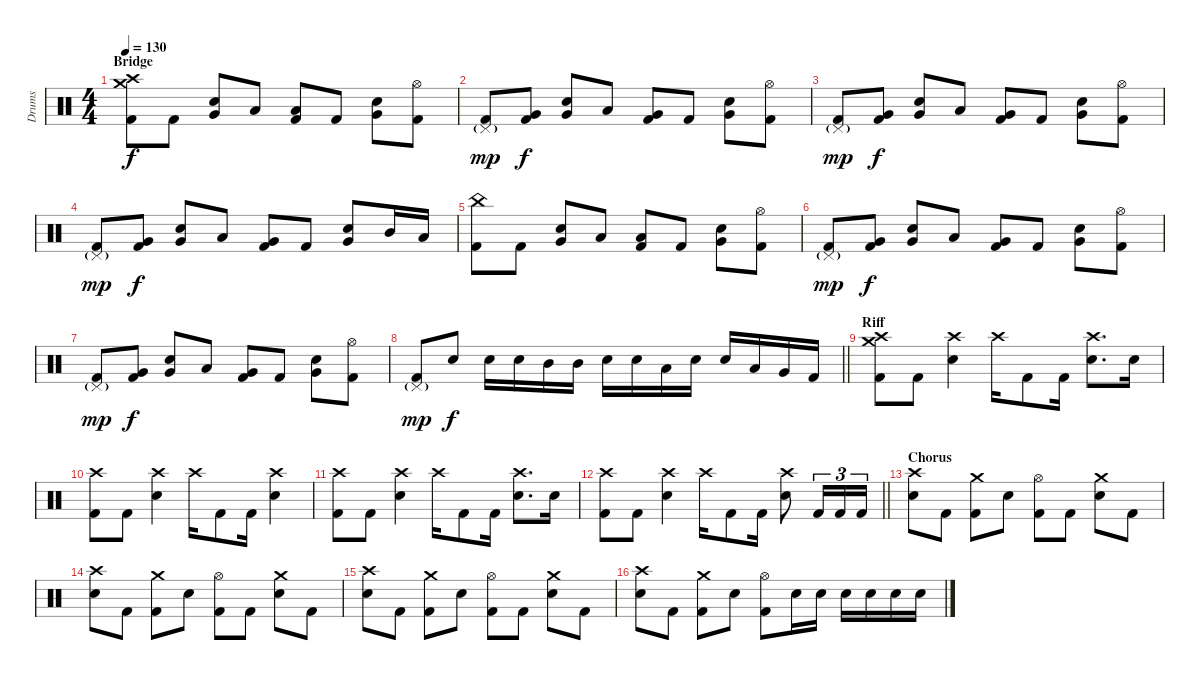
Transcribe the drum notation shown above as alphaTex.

\track ("Drums" "Drums") {instrument percussion}
\staff {score}
\articulation defaults
\ts (4 4)
\section ("" "Bridge")
\tempo 130
\clef neutral
\ks c
("Crash high (hit)" "Crash medium (hit)" "Kick (hit) 2").8{dy f} "Kick (hit) 2".8 ("Very Low Tom (hit)" "Electric Snare (hit)").8 "Low Floor Tom (hit)".8 ("Low Tom (hit)" "Kick (hit) 2").8 "Kick (hit) 2".8 ("Very Low Tom (hit)" "Electric Snare (hit)").8 ("Hi-Hat (open)" "Kick (hit) 2").8 |
("Pedal Hi-Hat (hit)"{g} "Kick (hit) 2").8{dy mp} ("Very Low Tom (hit)" "Kick (hit) 2").8{dy f} ("Very Low Tom (hit)" "Electric Snare (hit)").8 "Low Floor Tom (hit)".8 ("Very Low Tom (hit)" "Kick (hit) 2").8 "Kick (hit) 2".8 ("Very Low Tom (hit)" "Electric Snare (hit)").8 ("Hi-Hat (open)" "Kick (hit) 2").8 |
("Pedal Hi-Hat (hit)"{g} "Kick (hit) 2").8{dy mp} ("Very Low Tom (hit)" "Kick (hit) 2").8{dy f} ("Very Low Tom (hit)" "Electric Snare (hit)").8 "Low Floor Tom (hit)".8 ("Very Low Tom (hit)" "Kick (hit) 2").8 "Kick (hit) 2".8 ("Very Low Tom (hit)" "Electric Snare (hit)").8 ("Hi-Hat (open)" "Kick (hit) 2").8 |
("Pedal Hi-Hat (hit)"{g} "Kick (hit) 2").8{dy mp} ("Very Low Tom (hit)" "Kick (hit) 2").8{dy f} ("Very Low Tom (hit)" "Electric Snare (hit)").8 "Low Floor Tom (hit)".8 ("Very Low Tom (hit)" "Kick (hit) 2").8 "Kick (hit) 2".8 ("Very Low Tom (hit)" "Electric Snare (hit)").8 "Mid Tom (hit)".16 "Low Tom (hit)".16 |
("China (hit)" "Kick (hit) 2").8 "Kick (hit) 2".8 ("Very Low Tom (hit)" "Electric Snare (hit)").8 "Low Floor Tom (hit)".8 ("Low Tom (hit)" "Kick (hit) 2").8 "Kick (hit) 2".8 ("Very Low Tom (hit)" "Electric Snare (hit)").8 ("Hi-Hat (open)" "Kick (hit) 2").8 |
("Pedal Hi-Hat (hit)"{g} "Kick (hit) 2").8{dy mp} ("Very Low Tom (hit)" "Kick (hit) 2").8{dy f} ("Very Low Tom (hit)" "Electric Snare (hit)").8 "Low Floor Tom (hit)".8 ("Very Low Tom (hit)" "Kick (hit) 2").8 "Kick (hit) 2".8 ("Very Low Tom (hit)" "Electric Snare (hit)").8 ("Hi-Hat (open)" "Kick (hit) 2").8 |
("Pedal Hi-Hat (hit)"{g} "Kick (hit) 2").8{dy mp} ("Very Low Tom (hit)" "Kick (hit) 2").8{dy f} ("Very Low Tom (hit)" "Electric Snare (hit)").8 "Low Floor Tom (hit)".8 ("Very Low Tom (hit)" "Kick (hit) 2").8 "Kick (hit) 2".8 ("Very Low Tom (hit)" "Electric Snare (hit)").8 ("Hi-Hat (open)" "Kick (hit) 2").8 |
\barLineRight lightlight
("Pedal Hi-Hat (hit)"{g} "Kick (hit) 2").8{dy mp} "Electric Snare (hit)".8{dy f} "Electric Snare (hit)".16 "Electric Snare (hit)".16 "Mid Tom (hit)".16 "Mid Tom (hit)".16 "Electric Snare (hit)".16 "Electric Snare (hit)".16 "Low Tom (hit)".16 "Electric Snare (hit)".16 "Electric Snare (hit)".16 "Low Tom (hit)".16 "Very Low Tom (hit)".16 "Kick (hit) 2".16 |
\section ("" "Riff")
("Crash high (hit)" "Crash medium (hit)" "Kick (hit) 2").8 "Kick (hit) 2".8 ("Crash high (hit)" "Electric Snare (hit)").4 "Crash high (hit)".16 "Kick (hit) 2".8 "Kick (hit) 2".16 ("Crash high (hit)" "Electric Snare (hit)").8{d} "Electric Snare (hit)".16 |
("Crash high (hit)" "Kick (hit) 2").8 "Kick (hit) 2".8 ("Crash high (hit)" "Electric Snare (hit)").4 "Crash high (hit)".16 "Kick (hit) 2".8 "Kick (hit) 2".16 ("Crash high (hit)" "Electric Snare (hit)").4 |
("Crash high (hit)" "Kick (hit) 2").8 "Kick (hit) 2".8 ("Crash high (hit)" "Electric Snare (hit)").4 "Crash high (hit)".16 "Kick (hit) 2".8 "Kick (hit) 2".16 ("Crash high (hit)" "Electric Snare (hit)").8{d} "Electric Snare (hit)".16 |
\barLineRight lightlight
("Crash high (hit)" "Kick (hit) 2").8 "Kick (hit) 2".8 ("Crash high (hit)" "Electric Snare (hit)").4 "Crash high (hit)".16 "Kick (hit) 2".8 "Kick (hit) 2".16 ("Crash high (hit)" "Electric Snare (hit)").8 "Kick (hit) 2".16{tu (3 2)} "Kick (hit) 2".16{tu (3 2)} "Kick (hit) 2".16{tu (3 2)} |
\section ("" "Chorus")
("Crash high (hit)" "Electric Snare (hit)").8 "Kick (hit) 2".8 ("Crash medium (hit)" "Kick (hit) 2").8 "Electric Snare (hit)".8 ("Hi-Hat (open)" "Kick (hit) 2").8 "Kick (hit) 2".8 ("Crash medium (hit)" "Electric Snare (hit)").8 "Kick (hit) 2".8 |
("Crash high (hit)" "Electric Snare (hit)").8 "Kick (hit) 2".8 ("Crash medium (hit)" "Kick (hit) 2").8 "Electric Snare (hit)".8 ("Hi-Hat (open)" "Kick (hit) 2").8 "Kick (hit) 2".8 ("Crash medium (hit)" "Electric Snare (hit)").8 "Kick (hit) 2".8 |
("Crash high (hit)" "Electric Snare (hit)").8 "Kick (hit) 2".8 ("Crash medium (hit)" "Kick (hit) 2").8 "Electric Snare (hit)".8 ("Hi-Hat (open)" "Kick (hit) 2").8 "Kick (hit) 2".8 ("Crash medium (hit)" "Electric Snare (hit)").8 "Kick (hit) 2".8 |
("Crash high (hit)" "Electric Snare (hit)").8 "Kick (hit) 2".8 ("Crash medium (hit)" "Kick (hit) 2").8 "Electric Snare (hit)".8 ("Hi-Hat (open)" "Kick (hit) 2").8 "Electric Snare (hit)".16 "Electric Snare (hit)".16 "Electric Snare (hit)".16 "Electric Snare (hit)".16 "Electric Snare (hit)".16 "Electric Snare (hit)".16
